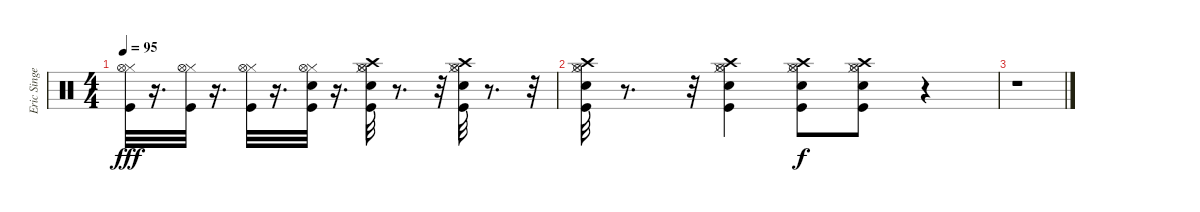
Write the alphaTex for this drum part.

\track ("Eric Singer" "Eric Singe") {instrument percussion}
\staff {score}
\articulation defaults
\ts (4 4)
\tempo 95
\clef neutral
\ks c
("Hi-Hat (closed)" "Kick (hit)" "Hi-Hat (open)").32{dy fff} r.16{d} ("Hi-Hat (closed)" "Kick (hit)" "Hi-Hat (open)").32 r.16{d} ("Kick (hit)" "Hi-Hat (closed)" "Hi-Hat (open)").32 r.16{d} ("Hi-Hat (closed)" "Kick (hit)" "Snare (hit) 2" "Hi-Hat (open)").32 r.16{d} ("Snare (hit) 2" "Crash high (hit)" "Kick (hit)" "Hi-Hat (closed)" "Hi-Hat (open)").32 r.8{d} r.32 ("Kick (hit)" "Snare (hit) 2" "Hi-Hat (closed)" "Crash high (hit)" "Hi-Hat (open)").32 r.8{d} r.32 |
("Kick (hit)" "Snare (hit) 2" "Hi-Hat (closed)" "Hi-Hat (open)" "Crash high (hit)").32 r.8{d} r.32 ("Kick (hit)" "Snare (hit) 2" "Hi-Hat (closed)" "Hi-Hat (open)" "Crash high (hit)").4 ("Kick (hit)" "Snare (hit) 2" "Crash high (hit)" "Hi-Hat (open)" "Hi-Hat (closed)").8{dy f} ("Kick (hit)" "Snare (hit) 2" "Crash high (hit)" "Hi-Hat (open)" "Hi-Hat (closed)").8 r.4 |
r.1
